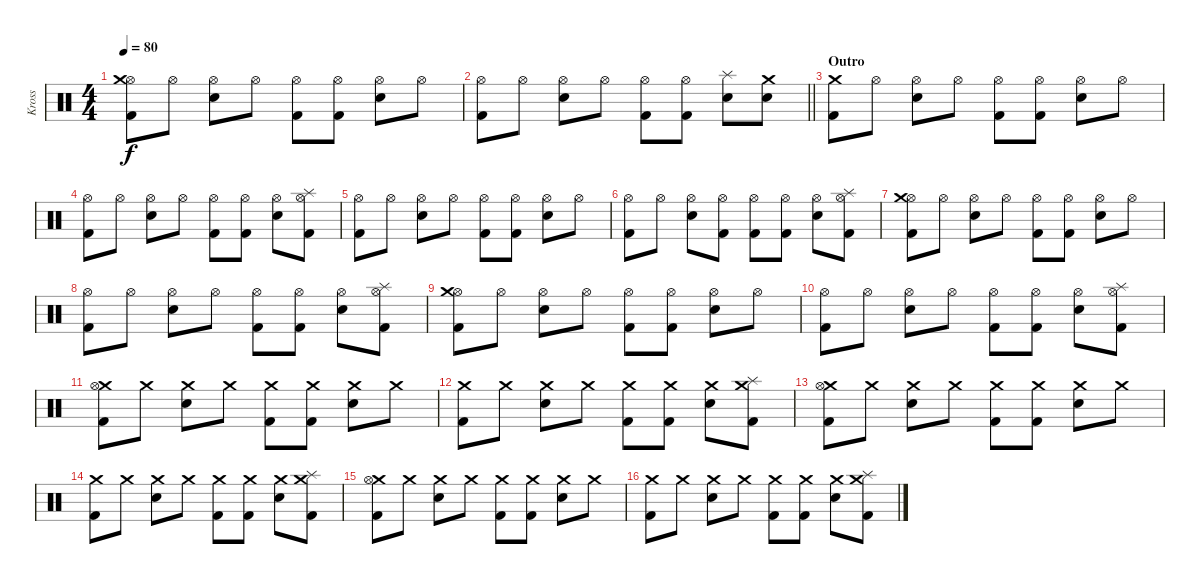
\track ("Kross" "Kross") {instrument percussion}
\staff {score}
\articulation defaults
\ts (4 4)
\tempo 80
\clef neutral
\ks c
("Hi-Hat (open)" "Crash medium (hit)" "Kick (hit) 2").8{dy f} "Hi-Hat (open)".8 ("Hi-Hat (open)" "Snare (hit) 2").8 "Hi-Hat (open)".8 ("Hi-Hat (open)" "Kick (hit) 2").8 ("Hi-Hat (open)" "Kick (hit) 2").8 ("Hi-Hat (open)" "Snare (hit) 2").8 "Hi-Hat (open)".8 |
\barLineRight lightlight
("Hi-Hat (open)" "Kick (hit) 2").8 "Hi-Hat (open)".8 ("Hi-Hat (open)" "Snare (hit) 2").8 "Hi-Hat (open)".8 ("Hi-Hat (open)" "Kick (hit) 2").8 ("Hi-Hat (open)" "Kick (hit) 2").8 ("Splash (hit)" "Snare (hit) 2").8 ("Crash medium (hit)" "Snare (hit) 2").8 |
\section ("" "Outro")
("Crash medium (hit)" "Kick (hit) 2").8 "Hi-Hat (open)".8 ("Hi-Hat (open)" "Snare (hit) 2").8 "Hi-Hat (open)".8 ("Hi-Hat (open)" "Kick (hit) 2").8 ("Hi-Hat (open)" "Kick (hit) 2").8 ("Hi-Hat (open)" "Snare (hit) 2").8 "Hi-Hat (open)".8 |
("Hi-Hat (open)" "Kick (hit) 2").8 "Hi-Hat (open)".8 ("Hi-Hat (open)" "Snare (hit) 2").8 "Hi-Hat (open)".8 ("Hi-Hat (open)" "Kick (hit) 2").8 ("Hi-Hat (open)" "Kick (hit) 2").8 ("Hi-Hat (open)" "Snare (hit) 2").8 ("Hi-Hat (open)" "Splash (hit)" "Kick (hit) 2").8 |
("Hi-Hat (open)" "Kick (hit) 2").8 "Hi-Hat (open)".8 ("Hi-Hat (open)" "Snare (hit) 2").8 "Hi-Hat (open)".8 ("Hi-Hat (open)" "Kick (hit) 2").8 ("Hi-Hat (open)" "Kick (hit) 2").8 ("Hi-Hat (open)" "Snare (hit) 2").8 "Hi-Hat (open)".8 |
("Hi-Hat (open)" "Kick (hit) 2").8 "Hi-Hat (open)".8 ("Hi-Hat (open)" "Snare (hit) 2").8 ("Hi-Hat (open)" "Kick (hit) 2").8 ("Hi-Hat (open)" "Kick (hit) 2").8 ("Hi-Hat (open)" "Kick (hit) 2").8 ("Hi-Hat (open)" "Snare (hit) 2").8 ("Hi-Hat (open)" "Splash (hit)" "Kick (hit) 2").8 |
("Hi-Hat (open)" "Crash medium (hit)" "Kick (hit) 2").8 "Hi-Hat (open)".8 ("Hi-Hat (open)" "Snare (hit) 2").8 "Hi-Hat (open)".8 ("Hi-Hat (open)" "Kick (hit) 2").8 ("Hi-Hat (open)" "Kick (hit) 2").8 ("Hi-Hat (open)" "Snare (hit) 2").8 "Hi-Hat (open)".8 |
("Hi-Hat (open)" "Kick (hit) 2").8 "Hi-Hat (open)".8 ("Hi-Hat (open)" "Snare (hit) 2").8 "Hi-Hat (open)".8 ("Hi-Hat (open)" "Kick (hit) 2").8 ("Hi-Hat (open)" "Kick (hit) 2").8 ("Hi-Hat (open)" "Snare (hit) 2").8 ("Hi-Hat (open)" "Splash (hit)" "Kick (hit) 2").8 |
("Hi-Hat (open)" "Crash medium (hit)" "Kick (hit) 2").8 "Hi-Hat (open)".8 ("Hi-Hat (open)" "Snare (hit) 2").8 "Hi-Hat (open)".8 ("Hi-Hat (open)" "Kick (hit) 2").8 ("Hi-Hat (open)" "Kick (hit) 2").8 ("Hi-Hat (open)" "Snare (hit) 2").8 "Hi-Hat (open)".8 |
("Hi-Hat (open)" "Kick (hit) 2").8 "Hi-Hat (open)".8 ("Hi-Hat (open)" "Snare (hit) 2").8 "Hi-Hat (open)".8 ("Hi-Hat (open)" "Kick (hit) 2").8 ("Hi-Hat (open)" "Kick (hit) 2").8 ("Hi-Hat (open)" "Snare (hit) 2").8 ("Hi-Hat (open)" "Splash (hit)" "Kick (hit) 2").8 |
("Crash medium (hit)" "Hi-Hat (open)" "Kick (hit) 2").8 "Crash medium (hit)".8 ("Crash medium (hit)" "Snare (hit) 2").8 "Crash medium (hit)".8 ("Crash medium (hit)" "Kick (hit) 2").8 ("Crash medium (hit)" "Kick (hit) 2").8 ("Crash medium (hit)" "Snare (hit) 2").8 "Crash medium (hit)".8 |
("Crash medium (hit)" "Kick (hit) 2").8 "Crash medium (hit)".8 ("Crash medium (hit)" "Snare (hit) 2").8 "Crash medium (hit)".8 ("Crash medium (hit)" "Kick (hit) 2").8 ("Crash medium (hit)" "Kick (hit) 2").8 ("Crash medium (hit)" "Snare (hit) 2").8 ("Crash medium (hit)" "Splash (hit)" "Kick (hit) 2").8 |
("Crash medium (hit)" "Hi-Hat (open)" "Kick (hit) 2").8 "Crash medium (hit)".8 ("Crash medium (hit)" "Snare (hit) 2").8 "Crash medium (hit)".8 ("Crash medium (hit)" "Kick (hit) 2").8 ("Crash medium (hit)" "Kick (hit) 2").8 ("Crash medium (hit)" "Snare (hit) 2").8 "Crash medium (hit)".8 |
("Crash medium (hit)" "Kick (hit) 2").8 "Crash medium (hit)".8 ("Crash medium (hit)" "Snare (hit) 2").8 "Crash medium (hit)".8 ("Crash medium (hit)" "Kick (hit) 2").8 ("Crash medium (hit)" "Kick (hit) 2").8 ("Crash medium (hit)" "Snare (hit) 2").8 ("Crash medium (hit)" "Splash (hit)" "Kick (hit) 2").8 |
("Crash medium (hit)" "Hi-Hat (open)" "Kick (hit) 2").8 "Crash medium (hit)".8 ("Crash medium (hit)" "Snare (hit) 2").8 "Crash medium (hit)".8 ("Crash medium (hit)" "Kick (hit) 2").8 ("Crash medium (hit)" "Kick (hit) 2").8 ("Crash medium (hit)" "Snare (hit) 2").8 "Crash medium (hit)".8 |
("Crash medium (hit)" "Kick (hit) 2").8 "Crash medium (hit)".8 ("Crash medium (hit)" "Snare (hit) 2").8 "Crash medium (hit)".8 ("Crash medium (hit)" "Kick (hit) 2").8 ("Crash medium (hit)" "Kick (hit) 2").8 ("Crash medium (hit)" "Snare (hit) 2").8 ("Crash medium (hit)" "Splash (hit)" "Kick (hit) 2").8
